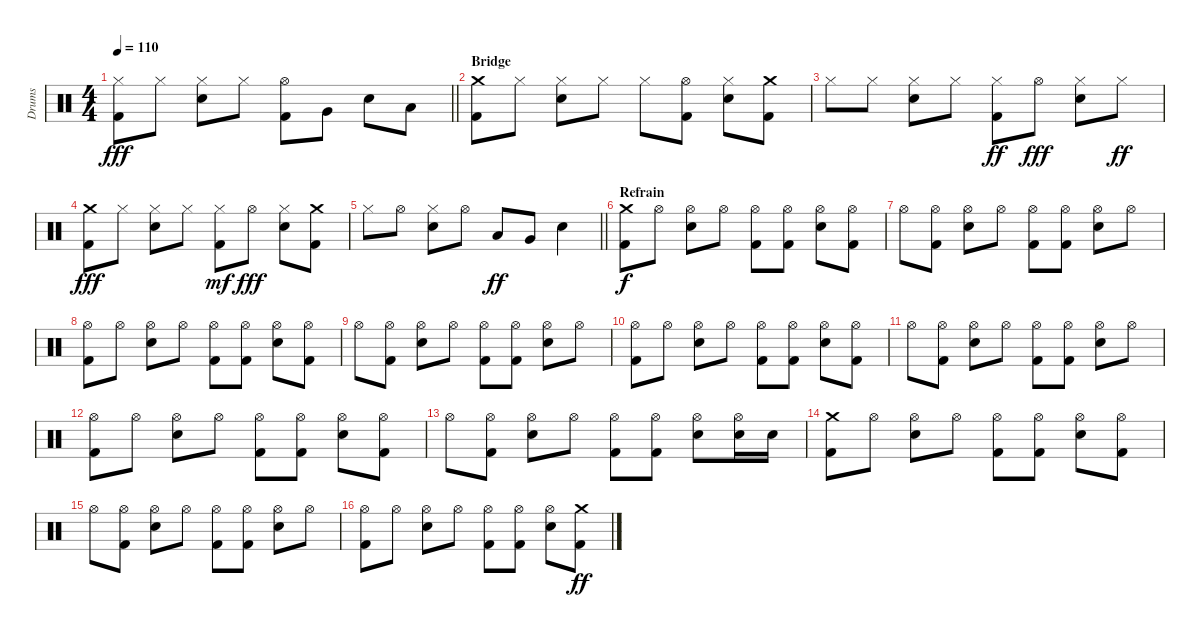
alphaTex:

\track ("Drums" "Drums") {instrument percussion}
\staff {score}
\articulation defaults
\ts (4 4)
\tempo 110
\clef neutral
\barLineRight lightlight
\ks c
("Hi-Hat (closed)" "Kick (hit) 2").8{dy fff} "Hi-Hat (closed)".8 ("Hi-Hat (closed)" "Electric Snare (hit)").8 "Hi-Hat (closed)".8 ("Hi-Hat (open)" "Kick (hit) 2").8 "Very Low Tom (hit)".8 "Electric Snare (hit)".8 "Low Tom (hit)".8 |
\section ("" "Bridge")
("Crash medium (hit)" "Kick (hit) 2").8 "Hi-Hat (closed)".8 ("Hi-Hat (closed)" "Electric Snare (hit)").8 "Hi-Hat (closed)".8 "Hi-Hat (closed)".8 ("Hi-Hat (open)" "Kick (hit) 2").8 ("Hi-Hat (closed)" "Electric Snare (hit)").8 ("Crash medium (hit)" "Kick (hit) 2").8 |
"Hi-Hat (closed)".8 "Hi-Hat (closed)".8 ("Hi-Hat (closed)" "Electric Snare (hit)").8 "Hi-Hat (closed)".8 ("Hi-Hat (closed)" "Kick (hit) 2").8{dy ff} "Hi-Hat (open)".8{dy fff} ("Hi-Hat (closed)" "Electric Snare (hit)").8 "Hi-Hat (closed)".8{dy ff} |
("Crash medium (hit)" "Kick (hit) 2").8{dy fff} "Hi-Hat (closed)".8 ("Hi-Hat (closed)" "Electric Snare (hit)").8 "Hi-Hat (closed)".8 ("Hi-Hat (closed)" "Kick (hit) 2").8{dy mf} "Hi-Hat (open)".8{dy fff} ("Hi-Hat (closed)" "Electric Snare (hit)").8 ("Crash medium (hit)" "Kick (hit) 2").8 |
\barLineRight lightlight "Hi-Hat (closed)".8 "Hi-Hat (open)".8
("Hi-Hat (closed)" "Electric Snare (hit)").8 "Hi-Hat (open)".8 "Low Tom (hit)".8{dy ff} "Very Low Tom (hit)".8 "Electric Snare (hit)".4 |
\section ("" "Refrain")
("Crash medium (hit)" "Kick (hit) 2").8{dy f} "Hi-Hat (open)".8 ("Hi-Hat (open)" "Electric Snare (hit)").8 "Hi-Hat (open)".8 ("Hi-Hat (open)" "Kick (hit) 2").8 ("Hi-Hat (open)" "Kick (hit) 2").8 ("Hi-Hat (open)" "Electric Snare (hit)").8 ("Hi-Hat (open)" "Kick (hit) 2").8 |
"Hi-Hat (open)".8 ("Hi-Hat (open)" "Kick (hit) 2").8 ("Hi-Hat (open)" "Electric Snare (hit)").8 "Hi-Hat (open)".8 ("Hi-Hat (open)" "Kick (hit) 2").8 ("Hi-Hat (open)" "Kick (hit) 2").8 ("Hi-Hat (open)" "Electric Snare (hit)").8 "Hi-Hat (open)".8 |
("Hi-Hat (open)" "Kick (hit) 2").8 "Hi-Hat (open)".8 ("Hi-Hat (open)" "Electric Snare (hit)").8 "Hi-Hat (open)".8 ("Hi-Hat (open)" "Kick (hit) 2").8 ("Hi-Hat (open)" "Kick (hit) 2").8 ("Hi-Hat (open)" "Electric Snare (hit)").8 ("Hi-Hat (open)" "Kick (hit) 2").8 |
"Hi-Hat (open)".8 ("Hi-Hat (open)" "Kick (hit) 2").8 ("Hi-Hat (open)" "Electric Snare (hit)").8 "Hi-Hat (open)".8 ("Hi-Hat (open)" "Kick (hit) 2").8 ("Hi-Hat (open)" "Kick (hit) 2").8 ("Hi-Hat (open)" "Electric Snare (hit)").8 "Hi-Hat (open)".8 |
("Hi-Hat (open)" "Kick (hit) 2").8 "Hi-Hat (open)".8 ("Hi-Hat (open)" "Electric Snare (hit)").8 "Hi-Hat (open)".8 ("Hi-Hat (open)" "Kick (hit) 2").8 ("Hi-Hat (open)" "Kick (hit) 2").8 ("Hi-Hat (open)" "Electric Snare (hit)").8 ("Hi-Hat (open)" "Kick (hit) 2").8 |
"Hi-Hat (open)".8 ("Hi-Hat (open)" "Kick (hit) 2").8 ("Hi-Hat (open)" "Electric Snare (hit)").8 "Hi-Hat (open)".8 ("Hi-Hat (open)" "Kick (hit) 2").8 ("Hi-Hat (open)" "Kick (hit) 2").8 ("Hi-Hat (open)" "Electric Snare (hit)").8 "Hi-Hat (open)".8 |
("Hi-Hat (open)" "Kick (hit) 2").8 "Hi-Hat (open)".8 ("Hi-Hat (open)" "Electric Snare (hit)").8 "Hi-Hat (open)".8 ("Hi-Hat (open)" "Kick (hit) 2").8 ("Hi-Hat (open)" "Kick (hit) 2").8 ("Hi-Hat (open)" "Electric Snare (hit)").8 ("Hi-Hat (open)" "Kick (hit) 2").8 |
"Hi-Hat (open)".8 ("Hi-Hat (open)" "Kick (hit) 2").8 ("Hi-Hat (open)" "Electric Snare (hit)").8 "Hi-Hat (open)".8 ("Hi-Hat (open)" "Kick (hit) 2").8 ("Hi-Hat (open)" "Kick (hit) 2").8 ("Hi-Hat (open)" "Electric Snare (hit)").8 ("Hi-Hat (open)" "Electric Snare (hit)").16 "Electric Snare (hit)".16 |
("Crash medium (hit)" "Kick (hit) 2").8 "Hi-Hat (open)".8 ("Hi-Hat (open)" "Electric Snare (hit)").8 "Hi-Hat (open)".8 ("Hi-Hat (open)" "Kick (hit) 2").8 ("Hi-Hat (open)" "Kick (hit) 2").8 ("Hi-Hat (open)" "Electric Snare (hit)").8 ("Hi-Hat (open)" "Kick (hit) 2").8 |
"Hi-Hat (open)".8 ("Hi-Hat (open)" "Kick (hit) 2").8 ("Hi-Hat (open)" "Electric Snare (hit)").8 "Hi-Hat (open)".8 ("Hi-Hat (open)" "Kick (hit) 2").8 ("Hi-Hat (open)" "Kick (hit) 2").8 ("Hi-Hat (open)" "Electric Snare (hit)").8 "Hi-Hat (open)".8 |
("Hi-Hat (open)" "Kick (hit) 2").8 "Hi-Hat (open)".8 ("Hi-Hat (open)" "Electric Snare (hit)").8 "Hi-Hat (open)".8 ("Hi-Hat (open)" "Kick (hit) 2").8 ("Hi-Hat (open)" "Kick (hit) 2").8 ("Hi-Hat (open)" "Electric Snare (hit)").8 ("Crash medium (hit)" "Kick (hit) 2").8{dy ff}
